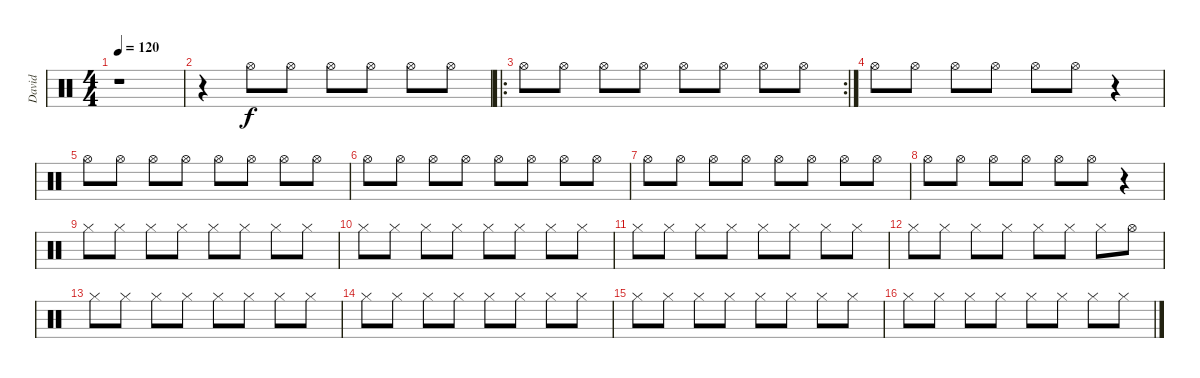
\track ("David" "David") {instrument percussion}
\staff {score}
\articulation defaults
\ts (4 4)
\tempo 120
\clef neutral
\ks c
r.1{dy f} |
r.4 "Hi-Hat (open)".8 "Hi-Hat (open)".8 "Hi-Hat (open)".8 "Hi-Hat (open)".8 "Hi-Hat (open)".8 "Hi-Hat (open)".8 |
\ro
\rc 2 "Hi-Hat (open)".8 "Hi-Hat (open)".8 "Hi-Hat (open)".8 "Hi-Hat (open)".8 "Hi-Hat (open)".8 "Hi-Hat (open)".8 "Hi-Hat (open)".8 "Hi-Hat (open)".8
|
"Hi-Hat (open)".8 "Hi-Hat (open)".8 "Hi-Hat (open)".8 "Hi-Hat (open)".8 "Hi-Hat (open)".8 "Hi-Hat (open)".8 r.4 |
"Hi-Hat (open)".8 "Hi-Hat (open)".8 "Hi-Hat (open)".8 "Hi-Hat (open)".8 "Hi-Hat (open)".8 "Hi-Hat (open)".8 "Hi-Hat (open)".8 "Hi-Hat (open)".8 |
"Hi-Hat (open)".8 "Hi-Hat (open)".8 "Hi-Hat (open)".8 "Hi-Hat (open)".8 "Hi-Hat (open)".8 "Hi-Hat (open)".8 "Hi-Hat (open)".8 "Hi-Hat (open)".8 |
"Hi-Hat (open)".8 "Hi-Hat (open)".8 "Hi-Hat (open)".8 "Hi-Hat (open)".8 "Hi-Hat (open)".8 "Hi-Hat (open)".8 "Hi-Hat (open)".8 "Hi-Hat (open)".8 |
"Hi-Hat (open)".8 "Hi-Hat (open)".8 "Hi-Hat (open)".8 "Hi-Hat (open)".8 "Hi-Hat (open)".8 "Hi-Hat (open)".8 r.4 |
"Hi-Hat (closed)".8 "Hi-Hat (closed)".8 "Hi-Hat (closed)".8 "Hi-Hat (closed)".8 "Hi-Hat (closed)".8 "Hi-Hat (closed)".8 "Hi-Hat (closed)".8 "Hi-Hat (closed)".8 |
"Hi-Hat (closed)".8 "Hi-Hat (closed)".8 "Hi-Hat (closed)".8 "Hi-Hat (closed)".8 "Hi-Hat (closed)".8 "Hi-Hat (closed)".8 "Hi-Hat (closed)".8 "Hi-Hat (closed)".8 |
"Hi-Hat (closed)".8 "Hi-Hat (closed)".8 "Hi-Hat (closed)".8 "Hi-Hat (closed)".8 "Hi-Hat (closed)".8 "Hi-Hat (closed)".8 "Hi-Hat (closed)".8 "Hi-Hat (closed)".8 |
"Hi-Hat (closed)".8 "Hi-Hat (closed)".8 "Hi-Hat (closed)".8 "Hi-Hat (closed)".8 "Hi-Hat (closed)".8 "Hi-Hat (closed)".8 "Hi-Hat (closed)".8 "Hi-Hat (open)".8 |
"Hi-Hat (closed)".8 "Hi-Hat (closed)".8 "Hi-Hat (closed)".8 "Hi-Hat (closed)".8 "Hi-Hat (closed)".8 "Hi-Hat (closed)".8 "Hi-Hat (closed)".8 "Hi-Hat (closed)".8 |
"Hi-Hat (closed)".8 "Hi-Hat (closed)".8 "Hi-Hat (closed)".8 "Hi-Hat (closed)".8 "Hi-Hat (closed)".8 "Hi-Hat (closed)".8 "Hi-Hat (closed)".8 "Hi-Hat (closed)".8 |
"Hi-Hat (closed)".8 "Hi-Hat (closed)".8 "Hi-Hat (closed)".8 "Hi-Hat (closed)".8 "Hi-Hat (closed)".8 "Hi-Hat (closed)".8 "Hi-Hat (closed)".8 "Hi-Hat (closed)".8 |
"Hi-Hat (closed)".8 "Hi-Hat (closed)".8 "Hi-Hat (closed)".8 "Hi-Hat (closed)".8 "Hi-Hat (closed)".8 "Hi-Hat (closed)".8 "Hi-Hat (closed)".8 "Hi-Hat (closed)".8
